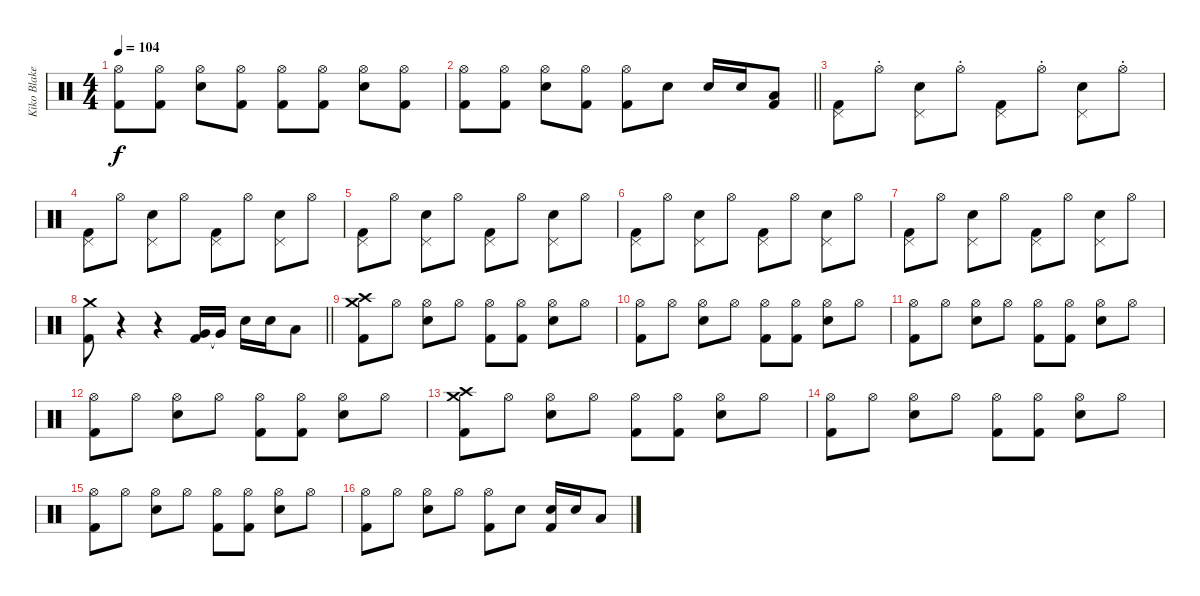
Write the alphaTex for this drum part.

\track ("Kiko Blake" "Kiko Blake") {instrument percussion}
\staff
\articulation defaults
\ts (4 4)
\tempo 104
\clef neutral
\ks c
("Hi-Hat (open)" "Kick (hit) 2").8{dy f} ("Hi-Hat (open)" "Kick (hit) 2").8 ("Hi-Hat (open)" "Snare (hit) 2").8 ("Hi-Hat (open)" "Kick (hit) 2").8 ("Hi-Hat (open)" "Kick (hit) 2").8 ("Hi-Hat (open)" "Kick (hit) 2").8 ("Hi-Hat (open)" "Snare (hit) 2").8 ("Hi-Hat (open)" "Kick (hit) 2").8 |
\barLineRight lightlight
("Hi-Hat (open)" "Kick (hit) 2").8 ("Hi-Hat (open)" "Kick (hit) 2").8 ("Hi-Hat (open)" "Snare (hit) 2").8 ("Hi-Hat (open)" "Kick (hit) 2").8 ("Hi-Hat (open)" "Kick (hit) 2").8 "Snare (hit) 2".8 "Snare (hit) 2".16 "Snare (hit) 2".16 ("Low Tom (hit)" "Kick (hit) 2").8 |
("Pedal Hi-Hat (hit)" "Kick (hit) 2").8 "Hi-Hat (open)"{st}.8 ("Pedal Hi-Hat (hit)" "Snare (hit) 2").8 "Hi-Hat (open)"{st}.8 ("Pedal Hi-Hat (hit)" "Kick (hit) 2").8 "Hi-Hat (open)"{st}.8 ("Pedal Hi-Hat (hit)" "Snare (hit) 2").8 "Hi-Hat (open)"{st}.8 |
("Pedal Hi-Hat (hit)" "Kick (hit) 2").8 "Hi-Hat (open)".8 ("Pedal Hi-Hat (hit)" "Snare (hit) 2").8 "Hi-Hat (open)".8 ("Pedal Hi-Hat (hit)" "Kick (hit) 2").8 "Hi-Hat (open)".8 ("Pedal Hi-Hat (hit)" "Snare (hit) 2").8 "Hi-Hat (open)".8 |
("Pedal Hi-Hat (hit)" "Kick (hit) 2").8 "Hi-Hat (open)".8 ("Pedal Hi-Hat (hit)" "Snare (hit) 2").8 "Hi-Hat (open)".8 ("Pedal Hi-Hat (hit)" "Kick (hit) 2").8 "Hi-Hat (open)".8 ("Pedal Hi-Hat (hit)" "Snare (hit) 2").8 "Hi-Hat (open)".8 |
("Pedal Hi-Hat (hit)" "Kick (hit) 2").8 "Hi-Hat (open)".8 ("Pedal Hi-Hat (hit)" "Snare (hit) 2").8 "Hi-Hat (open)".8 ("Pedal Hi-Hat (hit)" "Kick (hit) 2").8 "Hi-Hat (open)".8 ("Pedal Hi-Hat (hit)" "Snare (hit) 2").8 "Hi-Hat (open)".8 |
("Pedal Hi-Hat (hit)" "Kick (hit) 2").8 "Hi-Hat (open)".8 ("Pedal Hi-Hat (hit)" "Snare (hit) 2").8 "Hi-Hat (open)".8 ("Pedal Hi-Hat (hit)" "Kick (hit) 2").8 "Hi-Hat (open)".8 ("Pedal Hi-Hat (hit)" "Snare (hit) 2").8 "Hi-Hat (open)".8 |
\barLineRight lightlight
("Crash medium (hit)" "Kick (hit) 2").8 r.4 r.4 ("Very Low Tom (hit)" "Kick (hit) 2").16 "Very Low Tom (hit)"{t}.16 "Snare (hit) 2".16 "Snare (hit) 2".16 "Low Tom (hit)".8 |
("Crash medium (hit)" "Crash high (hit)" "Kick (hit) 2").8 "Hi-Hat (open)".8 ("Hi-Hat (open)" "Snare (hit) 2").8 "Hi-Hat (open)".8 ("Hi-Hat (open)" "Kick (hit) 2").8 ("Hi-Hat (open)" "Kick (hit) 2").8 ("Hi-Hat (open)" "Snare (hit) 2").8 "Hi-Hat (open)".8 |
("Hi-Hat (open)" "Kick (hit) 2").8 "Hi-Hat (open)".8 ("Hi-Hat (open)" "Snare (hit) 2").8 "Hi-Hat (open)".8 ("Hi-Hat (open)" "Kick (hit) 2").8 ("Hi-Hat (open)" "Kick (hit) 2").8 ("Hi-Hat (open)" "Snare (hit) 2").8 "Hi-Hat (open)".8 |
("Hi-Hat (open)" "Kick (hit) 2").8 "Hi-Hat (open)".8 ("Hi-Hat (open)" "Snare (hit) 2").8 "Hi-Hat (open)".8 ("Hi-Hat (open)" "Kick (hit) 2").8 ("Hi-Hat (open)" "Kick (hit) 2").8 ("Hi-Hat (open)" "Snare (hit) 2").8 "Hi-Hat (open)".8 |
("Hi-Hat (open)" "Kick (hit) 2").8 "Hi-Hat (open)".8 ("Hi-Hat (open)" "Snare (hit) 2").8 "Hi-Hat (open)".8 ("Hi-Hat (open)" "Kick (hit) 2").8 ("Hi-Hat (open)" "Kick (hit) 2").8 ("Hi-Hat (open)" "Snare (hit) 2").8 "Hi-Hat (open)".8 |
("Crash medium (hit)" "Crash high (hit)" "Kick (hit) 2").8 "Hi-Hat (open)".8 ("Hi-Hat (open)" "Snare (hit) 2").8 "Hi-Hat (open)".8 ("Hi-Hat (open)" "Kick (hit) 2").8 ("Hi-Hat (open)" "Kick (hit) 2").8 ("Hi-Hat (open)" "Snare (hit) 2").8 "Hi-Hat (open)".8 |
("Hi-Hat (open)" "Kick (hit) 2").8 "Hi-Hat (open)".8 ("Hi-Hat (open)" "Snare (hit) 2").8 "Hi-Hat (open)".8 ("Hi-Hat (open)" "Kick (hit) 2").8 ("Hi-Hat (open)" "Kick (hit) 2").8 ("Hi-Hat (open)" "Snare (hit) 2").8 "Hi-Hat (open)".8 |
("Hi-Hat (open)" "Kick (hit) 2").8 "Hi-Hat (open)".8 ("Hi-Hat (open)" "Snare (hit) 2").8 "Hi-Hat (open)".8 ("Hi-Hat (open)" "Kick (hit) 2").8 ("Hi-Hat (open)" "Kick (hit) 2").8 ("Hi-Hat (open)" "Snare (hit) 2").8 "Hi-Hat (open)".8 |
("Hi-Hat (open)" "Kick (hit) 2").8 "Hi-Hat (open)".8 ("Hi-Hat (open)" "Snare (hit) 2").8 "Hi-Hat (open)".8 ("Hi-Hat (open)" "Kick (hit) 2").8 "Snare (hit) 2".8 ("Snare (hit) 2" "Kick (hit) 2").16 "Snare (hit) 2".16 "Low Tom (hit)".8
